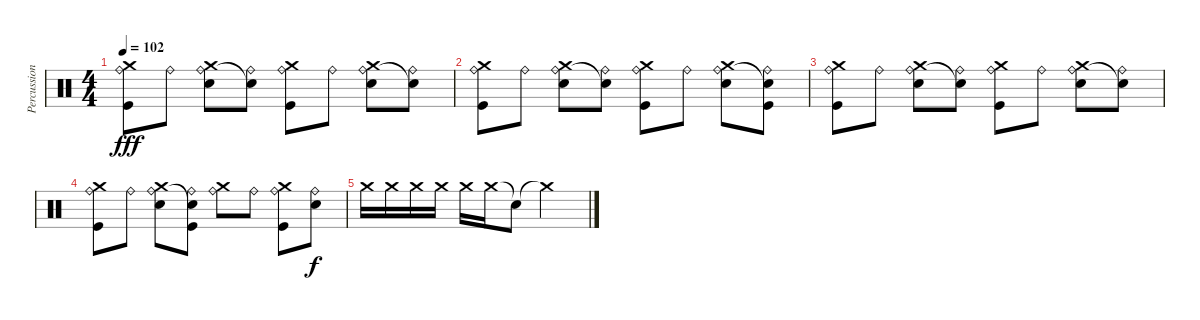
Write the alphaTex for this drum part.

\track ("Percussion" "Percussion") {instrument percussion}
\staff {score}
\articulation defaults
\ts (4 4)
\tempo 102
\clef neutral
\ks aminor
("Crash medium (hit)" "Ride (bell)" "Kick (hit)").8{dy fff} "Ride (bell)".8 ("Crash medium (hit)" "Ride (bell)" "Electric Snare (hit)").8 ("Ride (bell)" "Electric Snare (hit)"{t}).8 ("Crash medium (hit)" "Ride (bell)" "Kick (hit)").8 "Ride (bell)".8 ("Crash medium (hit)" "Ride (bell)" "Electric Snare (hit)").8 ("Ride (bell)" "Snare (hit)"{t}).8 |
("Crash medium (hit)" "Ride (bell)" "Kick (hit)").8 "Ride (bell)".8 ("Crash medium (hit)" "Ride (bell)" "Electric Snare (hit)").8 ("Ride (bell)" "Electric Snare (hit)"{t}).8 ("Crash medium (hit)" "Ride (bell)" "Kick (hit)").8 "Ride (bell)".8 ("Crash medium (hit)" "Ride (bell)" "Electric Snare (hit)").8 ("Ride (bell)" "Snare (hit)"{t} "Kick (hit)").8 |
("Crash medium (hit)" "Ride (bell)" "Kick (hit)").8 "Ride (bell)".8 ("Crash medium (hit)" "Ride (bell)" "Electric Snare (hit)").8 ("Ride (bell)" "Electric Snare (hit)"{t}).8 ("Crash medium (hit)" "Ride (bell)" "Kick (hit)").8 "Ride (bell)".8 ("Crash medium (hit)" "Ride (bell)" "Electric Snare (hit)").8 ("Ride (bell)" "Snare (hit)"{t}).8 |
("Crash medium (hit)" "Ride (bell)" "Kick (hit)").8 "Ride (bell)".8 ("Crash medium (hit)" "Ride (bell)" "Electric Snare (hit)").8 ("Ride (bell)" "Electric Snare (hit)"{t} "Kick (hit)").8 ("Crash medium (hit)" "Ride (bell)").8 "Ride (bell)".8 ("Crash medium (hit)" "Ride (bell)" "Kick (hit)").8 ("Ride (bell)" "Electric Snare (hit)").8{dy f} |
"Crash medium (hit)".16 "Crash medium (hit)".16 "Crash medium (hit)".16 "Crash medium (hit)".16 "Crash medium (hit)".16 "Crash medium (hit)".16 "Snare (hit)"{t}.8 "Crash medium (hit)"{t}.2
